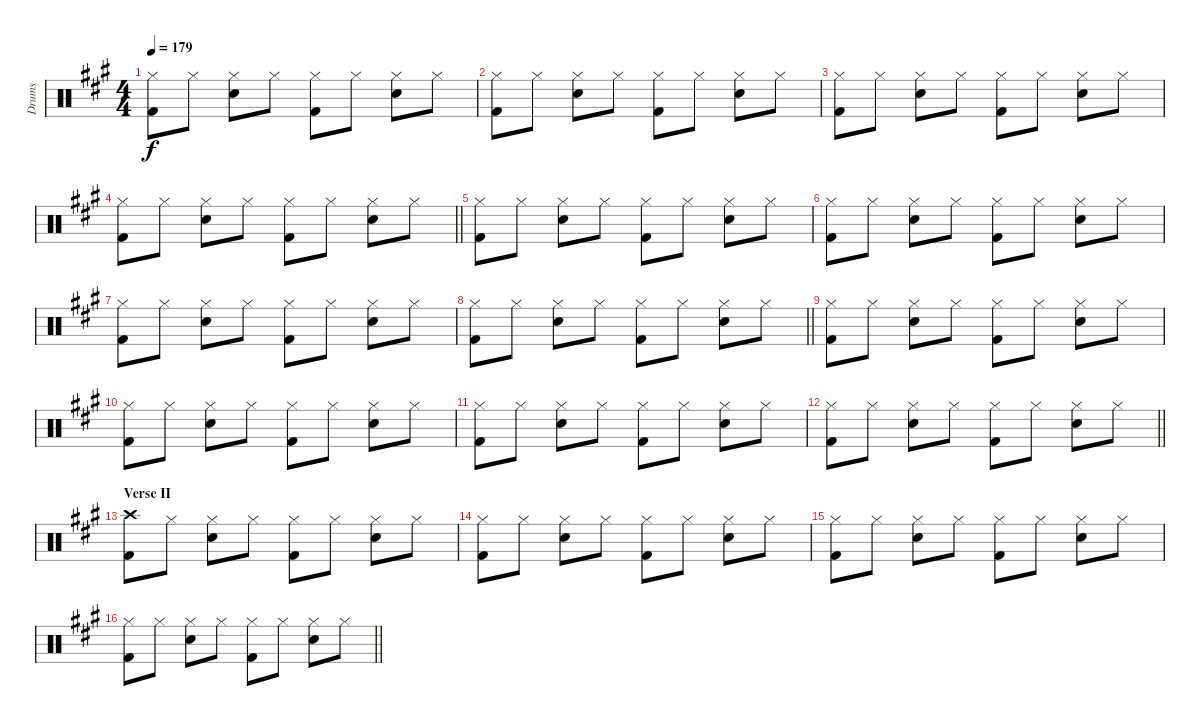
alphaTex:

\track ("Drums" "Drums") {instrument percussion}
\staff {score}
\articulation defaults
\ts (4 4)
\tempo 179
\clef neutral
\ks a
("Hi-Hat (closed)" "Kick (hit) 2").8{dy f} "Hi-Hat (closed)".8 ("Hi-Hat (closed)" "Electric Snare (hit)").8 "Hi-Hat (closed)".8 ("Hi-Hat (closed)" "Kick (hit) 2").8 "Hi-Hat (closed)".8 ("Hi-Hat (closed)" "Electric Snare (hit)").8 "Hi-Hat (closed)".8 |
("Hi-Hat (closed)" "Kick (hit) 2").8 "Hi-Hat (closed)".8 ("Hi-Hat (closed)" "Electric Snare (hit)").8 "Hi-Hat (closed)".8 ("Hi-Hat (closed)" "Kick (hit) 2").8 "Hi-Hat (closed)".8 ("Hi-Hat (closed)" "Electric Snare (hit)").8 "Hi-Hat (closed)".8 |
("Hi-Hat (closed)" "Kick (hit) 2").8 "Hi-Hat (closed)".8 ("Hi-Hat (closed)" "Electric Snare (hit)").8 "Hi-Hat (closed)".8 ("Hi-Hat (closed)" "Kick (hit) 2").8 "Hi-Hat (closed)".8 ("Hi-Hat (closed)" "Electric Snare (hit)").8 "Hi-Hat (closed)".8 |
\barLineRight lightlight
("Hi-Hat (closed)" "Kick (hit) 2").8 "Hi-Hat (closed)".8 ("Hi-Hat (closed)" "Electric Snare (hit)").8 "Hi-Hat (closed)".8 ("Hi-Hat (closed)" "Kick (hit) 2").8 "Hi-Hat (closed)".8 ("Hi-Hat (closed)" "Electric Snare (hit)").8 "Hi-Hat (closed)".8 |
("Hi-Hat (closed)" "Kick (hit) 2").8 "Hi-Hat (closed)".8 ("Hi-Hat (closed)" "Electric Snare (hit)").8 "Hi-Hat (closed)".8 ("Hi-Hat (closed)" "Kick (hit) 2").8 "Hi-Hat (closed)".8 ("Hi-Hat (closed)" "Electric Snare (hit)").8 "Hi-Hat (closed)".8 |
("Hi-Hat (closed)" "Kick (hit) 2").8 "Hi-Hat (closed)".8 ("Hi-Hat (closed)" "Electric Snare (hit)").8 "Hi-Hat (closed)".8 ("Hi-Hat (closed)" "Kick (hit) 2").8 "Hi-Hat (closed)".8 ("Hi-Hat (closed)" "Electric Snare (hit)").8 "Hi-Hat (closed)".8 |
("Hi-Hat (closed)" "Kick (hit) 2").8 "Hi-Hat (closed)".8 ("Hi-Hat (closed)" "Electric Snare (hit)").8 "Hi-Hat (closed)".8 ("Hi-Hat (closed)" "Kick (hit) 2").8 "Hi-Hat (closed)".8 ("Hi-Hat (closed)" "Electric Snare (hit)").8 "Hi-Hat (closed)".8 |
\barLineRight lightlight
("Hi-Hat (closed)" "Kick (hit) 2").8 "Hi-Hat (closed)".8 ("Hi-Hat (closed)" "Electric Snare (hit)").8 "Hi-Hat (closed)".8 ("Hi-Hat (closed)" "Kick (hit) 2").8 "Hi-Hat (closed)".8 ("Hi-Hat (closed)" "Electric Snare (hit)").8 "Hi-Hat (closed)".8 |
("Hi-Hat (closed)" "Kick (hit) 2").8 "Hi-Hat (closed)".8 ("Hi-Hat (closed)" "Electric Snare (hit)").8 "Hi-Hat (closed)".8 ("Hi-Hat (closed)" "Kick (hit) 2").8 "Hi-Hat (closed)".8 ("Hi-Hat (closed)" "Electric Snare (hit)").8 "Hi-Hat (closed)".8 |
("Hi-Hat (closed)" "Kick (hit) 2").8 "Hi-Hat (closed)".8 ("Hi-Hat (closed)" "Electric Snare (hit)").8 "Hi-Hat (closed)".8 ("Hi-Hat (closed)" "Kick (hit) 2").8 "Hi-Hat (closed)".8 ("Hi-Hat (closed)" "Electric Snare (hit)").8 "Hi-Hat (closed)".8 |
("Hi-Hat (closed)" "Kick (hit) 2").8 "Hi-Hat (closed)".8 ("Hi-Hat (closed)" "Electric Snare (hit)").8 "Hi-Hat (closed)".8 ("Hi-Hat (closed)" "Kick (hit) 2").8 "Hi-Hat (closed)".8 ("Hi-Hat (closed)" "Electric Snare (hit)").8 "Hi-Hat (closed)".8 |
\barLineRight lightlight
("Hi-Hat (closed)" "Kick (hit) 2").8 "Hi-Hat (closed)".8 ("Hi-Hat (closed)" "Electric Snare (hit)").8 "Hi-Hat (closed)".8 ("Hi-Hat (closed)" "Kick (hit) 2").8 "Hi-Hat (closed)".8 ("Hi-Hat (closed)" "Electric Snare (hit)").8 "Hi-Hat (closed)".8 |
\section ("" "Verse II")
("Crash high (hit)" "Kick (hit) 2").8 "Hi-Hat (closed)".8 ("Hi-Hat (closed)" "Electric Snare (hit)").8 "Hi-Hat (closed)".8 ("Hi-Hat (closed)" "Kick (hit) 2").8 "Hi-Hat (closed)".8 ("Hi-Hat (closed)" "Electric Snare (hit)").8 "Hi-Hat (closed)".8 |
("Hi-Hat (closed)" "Kick (hit) 2").8 "Hi-Hat (closed)".8 ("Hi-Hat (closed)" "Electric Snare (hit)").8 "Hi-Hat (closed)".8 ("Hi-Hat (closed)" "Kick (hit) 2").8 "Hi-Hat (closed)".8 ("Hi-Hat (closed)" "Electric Snare (hit)").8 "Hi-Hat (closed)".8 |
("Hi-Hat (closed)" "Kick (hit) 2").8 "Hi-Hat (closed)".8 ("Hi-Hat (closed)" "Electric Snare (hit)").8 "Hi-Hat (closed)".8 ("Hi-Hat (closed)" "Kick (hit) 2").8 "Hi-Hat (closed)".8 ("Hi-Hat (closed)" "Electric Snare (hit)").8 "Hi-Hat (closed)".8 |
\barLineRight lightlight
("Hi-Hat (closed)" "Kick (hit) 2").8 "Hi-Hat (closed)".8 ("Hi-Hat (closed)" "Electric Snare (hit)").8 "Hi-Hat (closed)".8 ("Hi-Hat (closed)" "Kick (hit) 2").8 "Hi-Hat (closed)".8 ("Hi-Hat (closed)" "Electric Snare (hit)").8 "Hi-Hat (closed)".8
